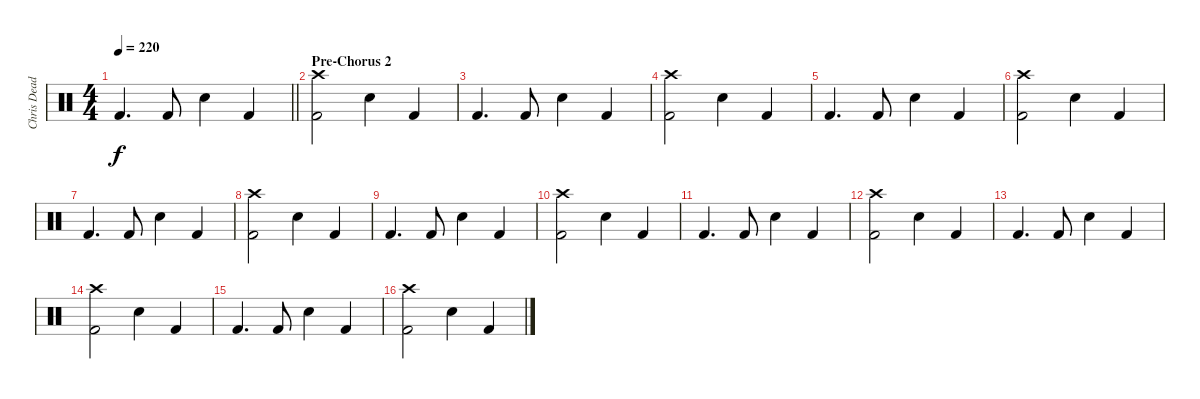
\track ("Chris Dead" "Chris Dead") {instrument percussion}
\staff {score}
\articulation defaults
\ts (4 4)
\tempo 220
\clef neutral
\barLineRight lightlight
\ks c "Kick (hit) 2".4{d dy f} "Kick (hit) 2".8 "Electric Snare (hit)".4 "Kick (hit) 2".4
|
\section ("" "Pre-Chorus 2")
("Crash high (hit)" "Kick (hit) 2").2 "Electric Snare (hit)".4 "Kick (hit) 2".4 |
"Kick (hit) 2".4{d} "Kick (hit) 2".8 "Electric Snare (hit)".4 "Kick (hit) 2".4 |
("Crash high (hit)" "Kick (hit) 2").2 "Electric Snare (hit)".4 "Kick (hit) 2".4 |
"Kick (hit) 2".4{d} "Kick (hit) 2".8 "Electric Snare (hit)".4 "Kick (hit) 2".4 |
("Crash high (hit)" "Kick (hit) 2").2 "Electric Snare (hit)".4 "Kick (hit) 2".4 |
"Kick (hit) 2".4{d} "Kick (hit) 2".8 "Electric Snare (hit)".4 "Kick (hit) 2".4 |
("Crash high (hit)" "Kick (hit) 2").2 "Electric Snare (hit)".4 "Kick (hit) 2".4 |
"Kick (hit) 2".4{d} "Kick (hit) 2".8 "Electric Snare (hit)".4 "Kick (hit) 2".4 |
("Crash high (hit)" "Kick (hit) 2").2 "Electric Snare (hit)".4 "Kick (hit) 2".4 |
"Kick (hit) 2".4{d} "Kick (hit) 2".8 "Electric Snare (hit)".4 "Kick (hit) 2".4 |
("Crash high (hit)" "Kick (hit) 2").2 "Electric Snare (hit)".4 "Kick (hit) 2".4 |
"Kick (hit) 2".4{d} "Kick (hit) 2".8 "Electric Snare (hit)".4 "Kick (hit) 2".4 |
("Crash high (hit)" "Kick (hit) 2").2 "Electric Snare (hit)".4 "Kick (hit) 2".4 |
"Kick (hit) 2".4{d} "Kick (hit) 2".8 "Electric Snare (hit)".4 "Kick (hit) 2".4 |
("Crash high (hit)" "Kick (hit) 2").2 "Electric Snare (hit)".4 "Kick (hit) 2".4
